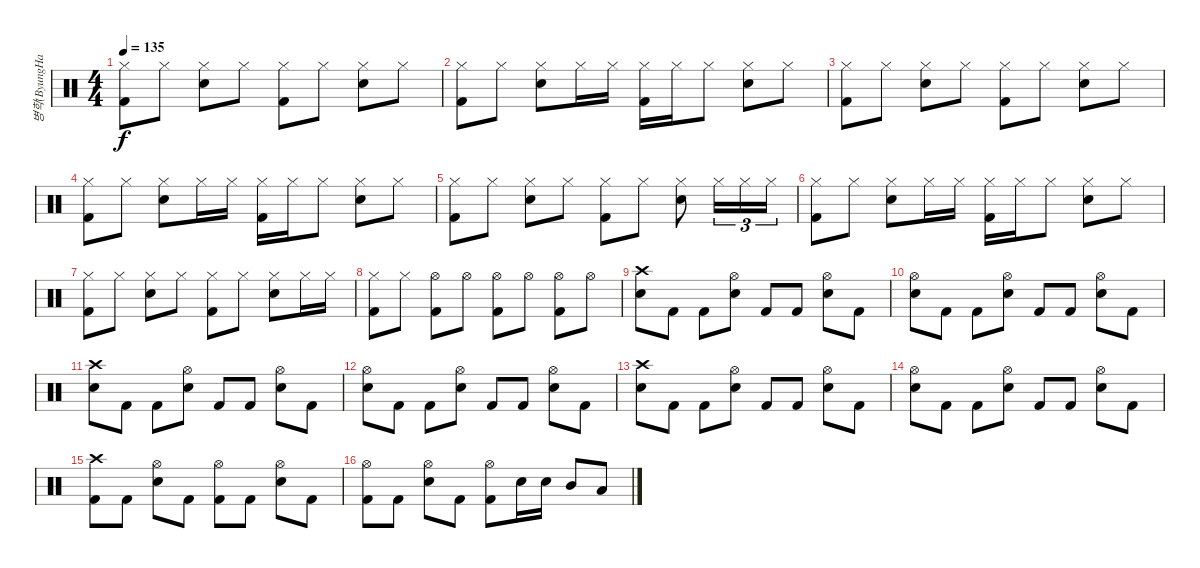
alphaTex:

\track ("병학(ByungHak)" "병학(ByungHa") {instrument percussion}
\staff {score}
\articulation defaults
\ts (4 4)
\tempo 135
\clef neutral
\ks c
("Hi-Hat (closed)" "Kick (hit) 2").8{dy f} "Hi-Hat (closed)".8 ("Hi-Hat (closed)" "Snare (hit) 2").8 "Hi-Hat (closed)".8 ("Hi-Hat (closed)" "Kick (hit) 2").8 "Hi-Hat (closed)".8 ("Hi-Hat (closed)" "Snare (hit) 2").8 "Hi-Hat (closed)".8 |
("Hi-Hat (closed)" "Kick (hit) 2").8 "Hi-Hat (closed)".8 ("Hi-Hat (closed)" "Snare (hit) 2").8 "Hi-Hat (closed)".16 "Hi-Hat (closed)".16 ("Hi-Hat (closed)" "Kick (hit) 2").16 "Hi-Hat (closed)".16 "Hi-Hat (closed)".8 ("Hi-Hat (closed)" "Snare (hit) 2").8 "Hi-Hat (closed)".8 |
("Hi-Hat (closed)" "Kick (hit) 2").8 "Hi-Hat (closed)".8 ("Hi-Hat (closed)" "Snare (hit) 2").8 "Hi-Hat (closed)".8 ("Hi-Hat (closed)" "Kick (hit) 2").8 "Hi-Hat (closed)".8 ("Hi-Hat (closed)" "Snare (hit) 2").8 "Hi-Hat (closed)".8 |
("Hi-Hat (closed)" "Kick (hit) 2").8 "Hi-Hat (closed)".8 ("Hi-Hat (closed)" "Snare (hit) 2").8 "Hi-Hat (closed)".16 "Hi-Hat (closed)".16 ("Hi-Hat (closed)" "Kick (hit) 2").16 "Hi-Hat (closed)".16 "Hi-Hat (closed)".8 ("Hi-Hat (closed)" "Snare (hit) 2").8 "Hi-Hat (closed)".8 |
("Hi-Hat (closed)" "Kick (hit) 2").8 "Hi-Hat (closed)".8 ("Hi-Hat (closed)" "Snare (hit) 2").8 "Hi-Hat (closed)".8 ("Hi-Hat (closed)" "Kick (hit) 2").8 "Hi-Hat (closed)".8 ("Hi-Hat (closed)" "Snare (hit) 2").8 "Hi-Hat (closed)".16{tu (3 2)} "Hi-Hat (closed)".16{tu (3 2)} "Hi-Hat (closed)".16{tu (3 2)} |
("Hi-Hat (closed)" "Kick (hit) 2").8 "Hi-Hat (closed)".8 ("Hi-Hat (closed)" "Snare (hit) 2").8 "Hi-Hat (closed)".16 "Hi-Hat (closed)".16 ("Hi-Hat (closed)" "Kick (hit) 2").16 "Hi-Hat (closed)".16 "Hi-Hat (closed)".8 ("Hi-Hat (closed)" "Snare (hit) 2").8 "Hi-Hat (closed)".8 |
("Hi-Hat (closed)" "Kick (hit) 2").8 "Hi-Hat (closed)".8 ("Hi-Hat (closed)" "Snare (hit) 2").8 "Hi-Hat (closed)".8 ("Hi-Hat (closed)" "Kick (hit) 2").8 "Hi-Hat (closed)".8 ("Hi-Hat (closed)" "Snare (hit) 2").8 "Hi-Hat (closed)".16 "Hi-Hat (closed)".16 |
("Hi-Hat (closed)" "Kick (hit) 2").8 "Hi-Hat (closed)".8 ("Hi-Hat (open)" "Kick (hit) 2").8{volume 7} "Hi-Hat (open)".8{volume 8} ("Hi-Hat (open)" "Kick (hit) 2").8{volume 9} "Hi-Hat (open)".8{volume 10} ("Hi-Hat (open)" "Kick (hit) 2").8{volume 12} "Hi-Hat (open)".8{volume 13} |
("Crash high (hit)" "Snare (hit) 2").8 "Kick (hit) 2".8 "Kick (hit) 2".8 ("Hi-Hat (open)" "Snare (hit) 2").8 "Kick (hit) 2".8 "Kick (hit) 2".8 ("Hi-Hat (open)" "Snare (hit) 2").8 "Kick (hit) 2".8 |
("Hi-Hat (open)" "Snare (hit) 2").8 "Kick (hit) 2".8 "Kick (hit) 2".8 ("Hi-Hat (open)" "Snare (hit) 2").8 "Kick (hit) 2".8 "Kick (hit) 2".8 ("Hi-Hat (open)" "Snare (hit) 2").8 "Kick (hit) 2".8 |
("Crash high (hit)" "Snare (hit) 2").8 "Kick (hit) 2".8 "Kick (hit) 2".8 ("Hi-Hat (open)" "Snare (hit) 2").8 "Kick (hit) 2".8 "Kick (hit) 2".8 ("Hi-Hat (open)" "Snare (hit) 2").8 "Kick (hit) 2".8 |
("Hi-Hat (open)" "Snare (hit) 2").8 "Kick (hit) 2".8 "Kick (hit) 2".8 ("Hi-Hat (open)" "Snare (hit) 2").8 "Kick (hit) 2".8 "Kick (hit) 2".8 ("Hi-Hat (open)" "Snare (hit) 2").8 "Kick (hit) 2".8 |
("Crash high (hit)" "Snare (hit) 2").8 "Kick (hit) 2".8 "Kick (hit) 2".8 ("Hi-Hat (open)" "Snare (hit) 2").8 "Kick (hit) 2".8 "Kick (hit) 2".8 ("Hi-Hat (open)" "Snare (hit) 2").8 "Kick (hit) 2".8 |
("Hi-Hat (open)" "Snare (hit) 2").8 "Kick (hit) 2".8 "Kick (hit) 2".8 ("Hi-Hat (open)" "Snare (hit) 2").8 "Kick (hit) 2".8 "Kick (hit) 2".8 ("Hi-Hat (open)" "Snare (hit) 2").8 "Kick (hit) 2".8 |
("Crash high (hit)" "Kick (hit) 2").8 "Kick (hit) 2".8 ("Hi-Hat (open)" "Snare (hit) 2").8 "Kick (hit) 2".8 ("Hi-Hat (open)" "Kick (hit) 2").8 "Kick (hit) 2".8 ("Hi-Hat (open)" "Snare (hit) 2").8 "Kick (hit) 2".8 |
("Hi-Hat (open)" "Kick (hit) 2").8 "Kick (hit) 2".8 ("Hi-Hat (open)" "Snare (hit) 2").8 "Kick (hit) 2".8 ("Hi-Hat (open)" "Kick (hit) 2").8 "Electric Snare (hit)".16 "Electric Snare (hit)".16 "Mid Tom (hit)".8 "Low Tom (hit)".8
